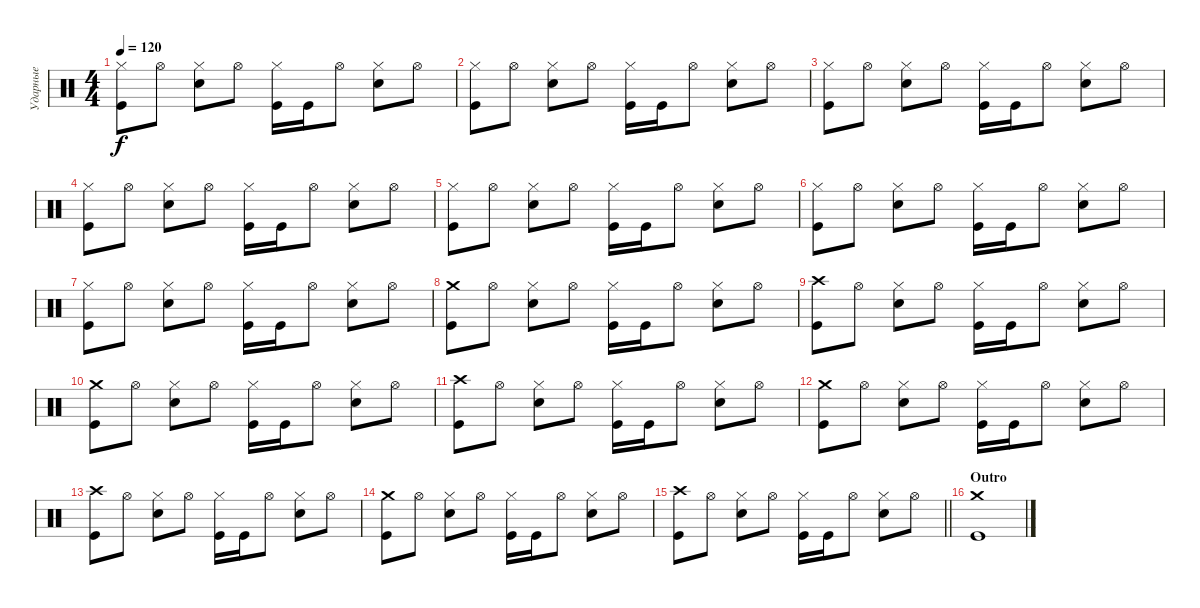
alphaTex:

\track ("Ударные" "Ударные") {instrument percussion}
\staff {score}
\articulation defaults
\ts (4 4)
\tempo 120
\clef neutral
\ks c
("Hi-Hat (closed)" "Kick (hit)").8{dy f} "Hi-Hat (open)".8 ("Hi-Hat (closed)" "Electric Snare (hit)").8 "Hi-Hat (open)".8 ("Hi-Hat (closed)" "Kick (hit)").16 "Kick (hit)".16 "Hi-Hat (open)".8 ("Hi-Hat (closed)" "Electric Snare (hit)").8 "Hi-Hat (open)".8 |
("Hi-Hat (closed)" "Kick (hit)").8 "Hi-Hat (open)".8 ("Hi-Hat (closed)" "Electric Snare (hit)").8 "Hi-Hat (open)".8 ("Hi-Hat (closed)" "Kick (hit)").16 "Kick (hit)".16 "Hi-Hat (open)".8 ("Hi-Hat (closed)" "Electric Snare (hit)").8 "Hi-Hat (open)".8 |
("Hi-Hat (closed)" "Kick (hit)").8 "Hi-Hat (open)".8 ("Hi-Hat (closed)" "Electric Snare (hit)").8 "Hi-Hat (open)".8 ("Hi-Hat (closed)" "Kick (hit)").16 "Kick (hit)".16 "Hi-Hat (open)".8 ("Hi-Hat (closed)" "Electric Snare (hit)").8 "Hi-Hat (open)".8 |
("Hi-Hat (closed)" "Kick (hit)").8 "Hi-Hat (open)".8 ("Hi-Hat (closed)" "Electric Snare (hit)").8 "Hi-Hat (open)".8 ("Hi-Hat (closed)" "Kick (hit)").16 "Kick (hit)".16 "Hi-Hat (open)".8 ("Hi-Hat (closed)" "Electric Snare (hit)").8 "Hi-Hat (open)".8 |
("Hi-Hat (closed)" "Kick (hit)").8 "Hi-Hat (open)".8 ("Hi-Hat (closed)" "Electric Snare (hit)").8 "Hi-Hat (open)".8 ("Hi-Hat (closed)" "Kick (hit)").16 "Kick (hit)".16 "Hi-Hat (open)".8 ("Hi-Hat (closed)" "Electric Snare (hit)").8 "Hi-Hat (open)".8 |
("Hi-Hat (closed)" "Kick (hit)").8 "Hi-Hat (open)".8 ("Hi-Hat (closed)" "Electric Snare (hit)").8 "Hi-Hat (open)".8 ("Hi-Hat (closed)" "Kick (hit)").16 "Kick (hit)".16 "Hi-Hat (open)".8 ("Hi-Hat (closed)" "Electric Snare (hit)").8 "Hi-Hat (open)".8 |
("Hi-Hat (closed)" "Kick (hit)").8 "Hi-Hat (open)".8 ("Hi-Hat (closed)" "Electric Snare (hit)").8 "Hi-Hat (open)".8 ("Hi-Hat (closed)" "Kick (hit)").16 "Kick (hit)".16 "Hi-Hat (open)".8 ("Hi-Hat (closed)" "Electric Snare (hit)").8 "Hi-Hat (open)".8 |
("Crash medium (hit)" "Kick (hit)").8 "Hi-Hat (open)".8 ("Hi-Hat (closed)" "Electric Snare (hit)").8 "Hi-Hat (open)".8 ("Hi-Hat (closed)" "Kick (hit)").16 "Kick (hit)".16 "Hi-Hat (open)".8 ("Hi-Hat (closed)" "Electric Snare (hit)").8 "Hi-Hat (open)".8 |
("Crash high (hit)" "Kick (hit)").8 "Hi-Hat (open)".8 ("Hi-Hat (closed)" "Electric Snare (hit)").8 "Hi-Hat (open)".8 ("Hi-Hat (closed)" "Kick (hit)").16 "Kick (hit)".16 "Hi-Hat (open)".8 ("Hi-Hat (closed)" "Electric Snare (hit)").8 "Hi-Hat (open)".8 |
("Crash medium (hit)" "Kick (hit)").8 "Hi-Hat (open)".8 ("Hi-Hat (closed)" "Electric Snare (hit)").8 "Hi-Hat (open)".8 ("Hi-Hat (closed)" "Kick (hit)").16 "Kick (hit)".16 "Hi-Hat (open)".8 ("Hi-Hat (closed)" "Electric Snare (hit)").8 "Hi-Hat (open)".8 |
("Crash high (hit)" "Kick (hit)").8 "Hi-Hat (open)".8 ("Hi-Hat (closed)" "Electric Snare (hit)").8 "Hi-Hat (open)".8 ("Hi-Hat (closed)" "Kick (hit)").16 "Kick (hit)".16 "Hi-Hat (open)".8 ("Hi-Hat (closed)" "Electric Snare (hit)").8 "Hi-Hat (open)".8 |
("Crash medium (hit)" "Kick (hit)").8 "Hi-Hat (open)".8 ("Hi-Hat (closed)" "Electric Snare (hit)").8 "Hi-Hat (open)".8 ("Hi-Hat (closed)" "Kick (hit)").16 "Kick (hit)".16 "Hi-Hat (open)".8 ("Hi-Hat (closed)" "Electric Snare (hit)").8 "Hi-Hat (open)".8 |
("Crash high (hit)" "Kick (hit)").8 "Hi-Hat (open)".8 ("Hi-Hat (closed)" "Electric Snare (hit)").8 "Hi-Hat (open)".8 ("Hi-Hat (closed)" "Kick (hit)").16 "Kick (hit)".16 "Hi-Hat (open)".8 ("Hi-Hat (closed)" "Electric Snare (hit)").8 "Hi-Hat (open)".8 |
("Crash medium (hit)" "Kick (hit)").8 "Hi-Hat (open)".8 ("Hi-Hat (closed)" "Electric Snare (hit)").8 "Hi-Hat (open)".8 ("Hi-Hat (closed)" "Kick (hit)").16 "Kick (hit)".16 "Hi-Hat (open)".8 ("Hi-Hat (closed)" "Electric Snare (hit)").8 "Hi-Hat (open)".8 |
\barLineRight lightlight
("Crash high (hit)" "Kick (hit)").8 "Hi-Hat (open)".8 ("Hi-Hat (closed)" "Electric Snare (hit)").8 "Hi-Hat (open)".8 ("Hi-Hat (closed)" "Kick (hit)").16 "Kick (hit)".16 "Hi-Hat (open)".8 ("Hi-Hat (closed)" "Electric Snare (hit)").8 "Hi-Hat (open)".8 |
\section ("" "Outro")
("Crash medium (hit)" "Kick (hit)").1
